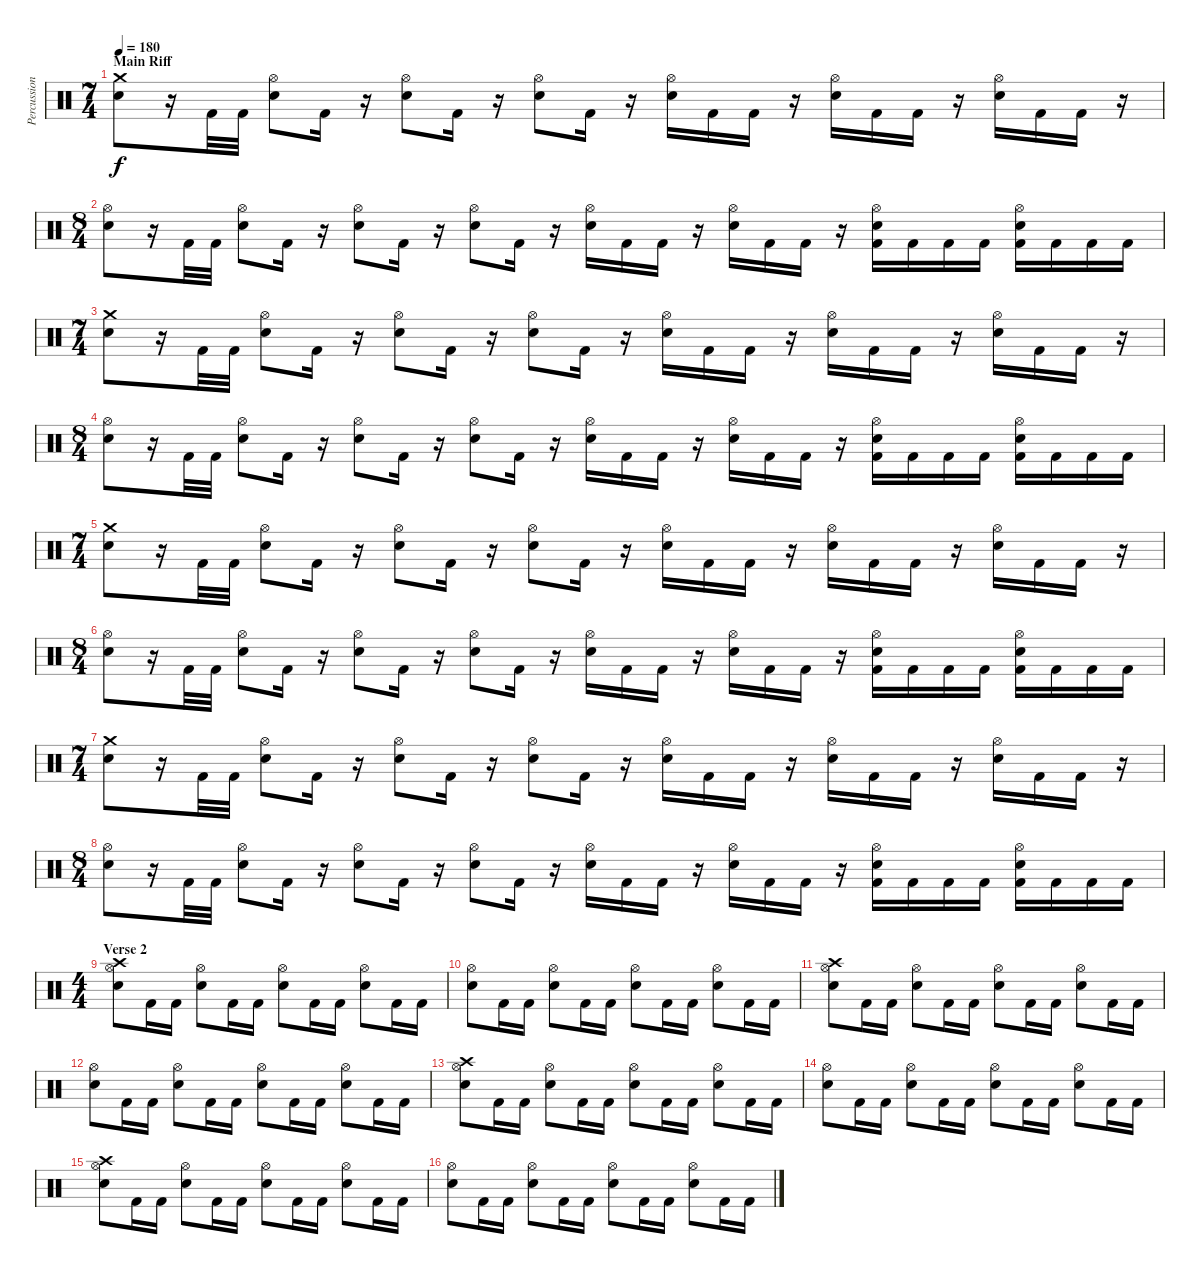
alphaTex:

\track ("Percussions" "Percussion") {instrument percussion}
\staff {score}
\articulation defaults
\ts (7 4)
\section ("" "Main Riff")
\tempo 180
\clef neutral
\ks c
("Crash medium (hit)" "Electric Snare (hit)").8{dy f} r.16 "Kick (hit) 2".32 "Kick (hit) 2".32 ("Hi-Hat (open)" "Electric Snare (hit)").8 "Kick (hit) 2".16 r.16 ("Hi-Hat (open)" "Electric Snare (hit)").8 "Kick (hit) 2".16 r.16 ("Hi-Hat (open)" "Electric Snare (hit)").8 "Kick (hit) 2".16 r.16 ("Hi-Hat (open)" "Electric Snare (hit)").16 "Kick (hit) 2".16 "Kick (hit) 2".16 r.16 ("Hi-Hat (open)" "Electric Snare (hit)").16 "Kick (hit) 2".16 "Kick (hit) 2".16 r.16 ("Hi-Hat (open)" "Electric Snare (hit)").16 "Kick (hit) 2".16 "Kick (hit) 2".16 r.16 |
\ts (8 4)
("Hi-Hat (open)" "Electric Snare (hit)").8 r.16 "Kick (hit) 2".32 "Kick (hit) 2".32 ("Hi-Hat (open)" "Electric Snare (hit)").8 "Kick (hit) 2".16 r.16 ("Hi-Hat (open)" "Electric Snare (hit)").8 "Kick (hit) 2".16 r.16 ("Hi-Hat (open)" "Electric Snare (hit)").8 "Kick (hit) 2".16 r.16 ("Hi-Hat (open)" "Electric Snare (hit)").16 "Kick (hit) 2".16 "Kick (hit) 2".16 r.16 ("Hi-Hat (open)" "Electric Snare (hit)").16 "Kick (hit) 2".16 "Kick (hit) 2".16 r.16 ("Kick (hit) 2" "Hi-Hat (open)" "Electric Snare (hit)").16 "Kick (hit) 2".16 "Kick (hit) 2".16 "Kick (hit) 2".16 ("Hi-Hat (open)" "Electric Snare (hit)" "Kick (hit) 2").16 "Kick (hit) 2".16 "Kick (hit) 2".16 "Kick (hit) 2".16 |
\ts (7 4)
("Crash medium (hit)" "Electric Snare (hit)").8 r.16 "Kick (hit) 2".32 "Kick (hit) 2".32 ("Hi-Hat (open)" "Electric Snare (hit)").8 "Kick (hit) 2".16 r.16 ("Hi-Hat (open)" "Electric Snare (hit)").8 "Kick (hit) 2".16 r.16 ("Hi-Hat (open)" "Electric Snare (hit)").8 "Kick (hit) 2".16 r.16 ("Hi-Hat (open)" "Electric Snare (hit)").16 "Kick (hit) 2".16 "Kick (hit) 2".16 r.16 ("Hi-Hat (open)" "Electric Snare (hit)").16 "Kick (hit) 2".16 "Kick (hit) 2".16 r.16 ("Hi-Hat (open)" "Electric Snare (hit)").16 "Kick (hit) 2".16 "Kick (hit) 2".16 r.16 |
\ts (8 4)
("Hi-Hat (open)" "Electric Snare (hit)").8 r.16 "Kick (hit) 2".32 "Kick (hit) 2".32 ("Hi-Hat (open)" "Electric Snare (hit)").8 "Kick (hit) 2".16 r.16 ("Hi-Hat (open)" "Electric Snare (hit)").8 "Kick (hit) 2".16 r.16 ("Hi-Hat (open)" "Electric Snare (hit)").8 "Kick (hit) 2".16 r.16 ("Hi-Hat (open)" "Electric Snare (hit)").16 "Kick (hit) 2".16 "Kick (hit) 2".16 r.16 ("Hi-Hat (open)" "Electric Snare (hit)").16 "Kick (hit) 2".16 "Kick (hit) 2".16 r.16 ("Kick (hit) 2" "Hi-Hat (open)" "Electric Snare (hit)").16 "Kick (hit) 2".16 "Kick (hit) 2".16 "Kick (hit) 2".16 ("Hi-Hat (open)" "Electric Snare (hit)" "Kick (hit) 2").16 "Kick (hit) 2".16 "Kick (hit) 2".16 "Kick (hit) 2".16 |
\ts (7 4)
("Crash medium (hit)" "Electric Snare (hit)").8 r.16 "Kick (hit) 2".32 "Kick (hit) 2".32 ("Hi-Hat (open)" "Electric Snare (hit)").8 "Kick (hit) 2".16 r.16 ("Hi-Hat (open)" "Electric Snare (hit)").8 "Kick (hit) 2".16 r.16 ("Hi-Hat (open)" "Electric Snare (hit)").8 "Kick (hit) 2".16 r.16 ("Hi-Hat (open)" "Electric Snare (hit)").16 "Kick (hit) 2".16 "Kick (hit) 2".16 r.16 ("Hi-Hat (open)" "Electric Snare (hit)").16 "Kick (hit) 2".16 "Kick (hit) 2".16 r.16 ("Hi-Hat (open)" "Electric Snare (hit)").16 "Kick (hit) 2".16 "Kick (hit) 2".16 r.16 |
\ts (8 4)
("Hi-Hat (open)" "Electric Snare (hit)").8 r.16 "Kick (hit) 2".32 "Kick (hit) 2".32 ("Hi-Hat (open)" "Electric Snare (hit)").8 "Kick (hit) 2".16 r.16 ("Hi-Hat (open)" "Electric Snare (hit)").8 "Kick (hit) 2".16 r.16 ("Hi-Hat (open)" "Electric Snare (hit)").8 "Kick (hit) 2".16 r.16 ("Hi-Hat (open)" "Electric Snare (hit)").16 "Kick (hit) 2".16 "Kick (hit) 2".16 r.16 ("Hi-Hat (open)" "Electric Snare (hit)").16 "Kick (hit) 2".16 "Kick (hit) 2".16 r.16 ("Kick (hit) 2" "Hi-Hat (open)" "Electric Snare (hit)").16 "Kick (hit) 2".16 "Kick (hit) 2".16 "Kick (hit) 2".16 ("Hi-Hat (open)" "Electric Snare (hit)" "Kick (hit) 2").16 "Kick (hit) 2".16 "Kick (hit) 2".16 "Kick (hit) 2".16 |
\ts (7 4)
("Crash medium (hit)" "Electric Snare (hit)").8 r.16 "Kick (hit) 2".32 "Kick (hit) 2".32 ("Hi-Hat (open)" "Electric Snare (hit)").8 "Kick (hit) 2".16 r.16 ("Hi-Hat (open)" "Electric Snare (hit)").8 "Kick (hit) 2".16 r.16 ("Hi-Hat (open)" "Electric Snare (hit)").8 "Kick (hit) 2".16 r.16 ("Hi-Hat (open)" "Electric Snare (hit)").16 "Kick (hit) 2".16 "Kick (hit) 2".16 r.16 ("Hi-Hat (open)" "Electric Snare (hit)").16 "Kick (hit) 2".16 "Kick (hit) 2".16 r.16 ("Hi-Hat (open)" "Electric Snare (hit)").16 "Kick (hit) 2".16 "Kick (hit) 2".16 r.16 |
\ts (8 4)
("Hi-Hat (open)" "Electric Snare (hit)").8 r.16 "Kick (hit) 2".32 "Kick (hit) 2".32 ("Hi-Hat (open)" "Electric Snare (hit)").8 "Kick (hit) 2".16 r.16 ("Hi-Hat (open)" "Electric Snare (hit)").8 "Kick (hit) 2".16 r.16 ("Hi-Hat (open)" "Electric Snare (hit)").8 "Kick (hit) 2".16 r.16 ("Hi-Hat (open)" "Electric Snare (hit)").16 "Kick (hit) 2".16 "Kick (hit) 2".16 r.16 ("Hi-Hat (open)" "Electric Snare (hit)").16 "Kick (hit) 2".16 "Kick (hit) 2".16 r.16 ("Kick (hit) 2" "Hi-Hat (open)" "Electric Snare (hit)").16 "Kick (hit) 2".16 "Kick (hit) 2".16 "Kick (hit) 2".16 ("Hi-Hat (open)" "Electric Snare (hit)" "Kick (hit) 2").16 "Kick (hit) 2".16 "Kick (hit) 2".16 "Kick (hit) 2".16 |
\ts (4 4)
\section ("" "Verse 2")
("Crash high (hit)" "Hi-Hat (open)" "Electric Snare (hit)").8 "Kick (hit) 2".16 "Kick (hit) 2".16 ("Hi-Hat (open)" "Electric Snare (hit)").8 "Kick (hit) 2".16 "Kick (hit) 2".16 ("Hi-Hat (open)" "Electric Snare (hit)").8 "Kick (hit) 2".16 "Kick (hit) 2".16 ("Hi-Hat (open)" "Electric Snare (hit)").8 "Kick (hit) 2".16 "Kick (hit) 2".16 |
("Hi-Hat (open)" "Electric Snare (hit)").8 "Kick (hit) 2".16 "Kick (hit) 2".16 ("Hi-Hat (open)" "Electric Snare (hit)").8 "Kick (hit) 2".16 "Kick (hit) 2".16 ("Hi-Hat (open)" "Electric Snare (hit)").8 "Kick (hit) 2".16 "Kick (hit) 2".16 ("Hi-Hat (open)" "Electric Snare (hit)").8 "Kick (hit) 2".16 "Kick (hit) 2".16 |
("Crash high (hit)" "Hi-Hat (open)" "Electric Snare (hit)").8 "Kick (hit) 2".16 "Kick (hit) 2".16 ("Hi-Hat (open)" "Electric Snare (hit)").8 "Kick (hit) 2".16 "Kick (hit) 2".16 ("Hi-Hat (open)" "Electric Snare (hit)").8 "Kick (hit) 2".16 "Kick (hit) 2".16 ("Hi-Hat (open)" "Electric Snare (hit)").8 "Kick (hit) 2".16 "Kick (hit) 2".16 |
("Hi-Hat (open)" "Electric Snare (hit)").8 "Kick (hit) 2".16 "Kick (hit) 2".16 ("Hi-Hat (open)" "Electric Snare (hit)").8 "Kick (hit) 2".16 "Kick (hit) 2".16 ("Hi-Hat (open)" "Electric Snare (hit)").8 "Kick (hit) 2".16 "Kick (hit) 2".16 ("Hi-Hat (open)" "Electric Snare (hit)").8 "Kick (hit) 2".16 "Kick (hit) 2".16 |
("Crash high (hit)" "Hi-Hat (open)" "Electric Snare (hit)").8 "Kick (hit) 2".16 "Kick (hit) 2".16 ("Hi-Hat (open)" "Electric Snare (hit)").8 "Kick (hit) 2".16 "Kick (hit) 2".16 ("Hi-Hat (open)" "Electric Snare (hit)").8 "Kick (hit) 2".16 "Kick (hit) 2".16 ("Hi-Hat (open)" "Electric Snare (hit)").8 "Kick (hit) 2".16 "Kick (hit) 2".16 |
("Hi-Hat (open)" "Electric Snare (hit)").8 "Kick (hit) 2".16 "Kick (hit) 2".16 ("Hi-Hat (open)" "Electric Snare (hit)").8 "Kick (hit) 2".16 "Kick (hit) 2".16 ("Hi-Hat (open)" "Electric Snare (hit)").8 "Kick (hit) 2".16 "Kick (hit) 2".16 ("Hi-Hat (open)" "Electric Snare (hit)").8 "Kick (hit) 2".16 "Kick (hit) 2".16 |
("Crash high (hit)" "Hi-Hat (open)" "Electric Snare (hit)").8 "Kick (hit) 2".16 "Kick (hit) 2".16 ("Hi-Hat (open)" "Electric Snare (hit)").8 "Kick (hit) 2".16 "Kick (hit) 2".16 ("Hi-Hat (open)" "Electric Snare (hit)").8 "Kick (hit) 2".16 "Kick (hit) 2".16 ("Hi-Hat (open)" "Electric Snare (hit)").8 "Kick (hit) 2".16 "Kick (hit) 2".16 |
("Hi-Hat (open)" "Electric Snare (hit)").8 "Kick (hit) 2".16 "Kick (hit) 2".16 ("Hi-Hat (open)" "Electric Snare (hit)").8 "Kick (hit) 2".16 "Kick (hit) 2".16 ("Hi-Hat (open)" "Electric Snare (hit)").8 "Kick (hit) 2".16 "Kick (hit) 2".16 ("Hi-Hat (open)" "Electric Snare (hit)").8 "Kick (hit) 2".16 "Kick (hit) 2".16
